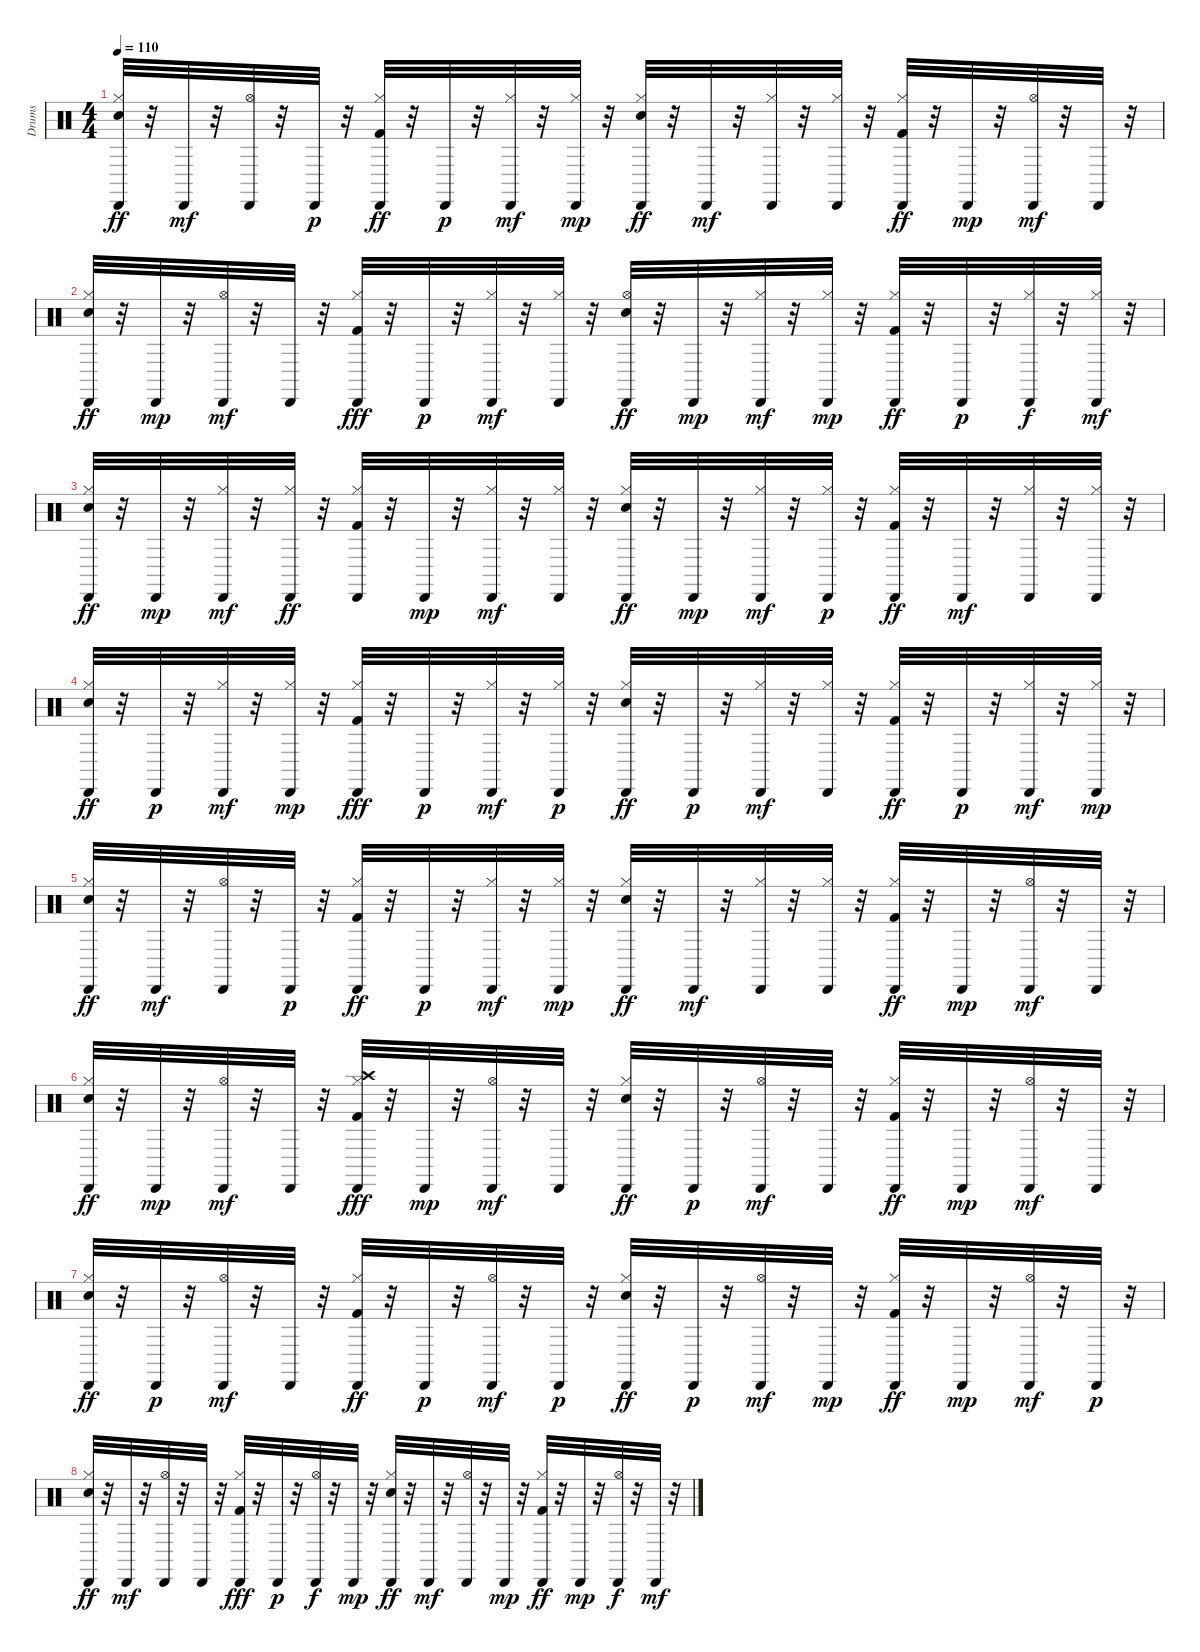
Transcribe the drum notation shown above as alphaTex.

\track ("Drums" "Drums") {instrument percussion}
\staff {score}
\articulation defaults
\ts (4 4)
\tempo 110
\clef neutral
\ks c
("Cabasa (hit)" "Hi-Hat (closed)" "Snare (hit) 2").32{dy ff} r.32 "Cabasa (hit)".32{dy mf} r.32 ("Hi-Hat (open)" "Cabasa (hit)").32 r.32 "Cabasa (hit)".32{dy p} r.32 ("Cabasa (hit)" "Hi-Hat (closed)" "Kick (hit) 2").32{dy ff} r.32 "Cabasa (hit)".32{dy p} r.32 ("Cabasa (hit)" "Hi-Hat (closed)").32{dy mf} r.32 ("Cabasa (hit)" "Hi-Hat (closed)").32{dy mp} r.32 ("Cabasa (hit)" "Hi-Hat (closed)" "Snare (hit) 2").32{dy ff} r.32 "Cabasa (hit)".32{dy mf} r.32 ("Cabasa (hit)" "Hi-Hat (closed)").32 r.32 ("Cabasa (hit)" "Hi-Hat (closed)").32 r.32 ("Cabasa (hit)" "Hi-Hat (closed)" "Kick (hit) 2").32{dy ff} r.32 "Cabasa (hit)".32{dy mp} r.32 ("Hi-Hat (open)" "Cabasa (hit)").32{dy mf} r.32 "Cabasa (hit)".32 r.32 |
("Cabasa (hit)" "Hi-Hat (closed)" "Snare (hit) 2").32{dy ff} r.32 "Cabasa (hit)".32{dy mp} r.32 ("Hi-Hat (open)" "Cabasa (hit)").32{dy mf} r.32 "Cabasa (hit)".32 r.32 ("Cabasa (hit)" "Hi-Hat (closed)" "Kick (hit) 2").32{dy fff} r.32 "Cabasa (hit)".32{dy p} r.32 ("Cabasa (hit)" "Hi-Hat (closed)").32{dy mf} r.32 ("Cabasa (hit)" "Hi-Hat (closed)").32 r.32 ("Hi-Hat (open)" "Cabasa (hit)" "Snare (hit) 2").32{dy ff} r.32 "Cabasa (hit)".32{dy mp} r.32 ("Cabasa (hit)" "Hi-Hat (closed)").32{dy mf} r.32 ("Cabasa (hit)" "Hi-Hat (closed)").32{dy mp} r.32 ("Cabasa (hit)" "Hi-Hat (closed)" "Kick (hit) 2").32{dy ff} r.32 "Cabasa (hit)".32{dy p} r.32 ("Cabasa (hit)" "Hi-Hat (closed)").32{dy f} r.32 ("Cabasa (hit)" "Hi-Hat (closed)").32{dy mf} r.32 |
("Cabasa (hit)" "Hi-Hat (closed)" "Snare (hit) 2").32{dy ff} r.32 "Cabasa (hit)".32{dy mp} r.32 ("Cabasa (hit)" "Hi-Hat (closed)").32{dy mf} r.32 ("Cabasa (hit)" "Hi-Hat (closed)").32{dy ff} r.32 ("Cabasa (hit)" "Hi-Hat (closed)" "Kick (hit) 2").32 r.32 "Cabasa (hit)".32{dy mp} r.32 ("Cabasa (hit)" "Hi-Hat (closed)").32{dy mf} r.32 ("Cabasa (hit)" "Hi-Hat (closed)").32 r.32 ("Cabasa (hit)" "Hi-Hat (closed)" "Snare (hit) 2").32{dy ff} r.32 "Cabasa (hit)".32{dy mp} r.32 ("Cabasa (hit)" "Hi-Hat (closed)").32{dy mf} r.32 ("Cabasa (hit)" "Hi-Hat (closed)").32{dy p} r.32 ("Cabasa (hit)" "Hi-Hat (closed)" "Kick (hit) 2").32{dy ff} r.32 "Cabasa (hit)".32{dy mf} r.32 ("Cabasa (hit)" "Hi-Hat (closed)").32 r.32 ("Cabasa (hit)" "Hi-Hat (closed)").32 r.32 |
("Cabasa (hit)" "Hi-Hat (closed)" "Snare (hit) 2").32{dy ff} r.32 "Cabasa (hit)".32{dy p} r.32 ("Cabasa (hit)" "Hi-Hat (closed)").32{dy mf} r.32 ("Cabasa (hit)" "Hi-Hat (closed)").32{dy mp} r.32 ("Cabasa (hit)" "Hi-Hat (closed)" "Kick (hit) 2").32{dy fff} r.32 "Cabasa (hit)".32{dy p} r.32 ("Cabasa (hit)" "Hi-Hat (closed)").32{dy mf} r.32 ("Cabasa (hit)" "Hi-Hat (closed)").32{dy p} r.32 ("Cabasa (hit)" "Hi-Hat (closed)" "Snare (hit) 2").32{dy ff} r.32 "Cabasa (hit)".32{dy p} r.32 ("Cabasa (hit)" "Hi-Hat (closed)").32{dy mf} r.32 ("Cabasa (hit)" "Hi-Hat (closed)").32 r.32 ("Cabasa (hit)" "Hi-Hat (closed)" "Kick (hit) 2").32{dy ff} r.32 "Cabasa (hit)".32{dy p} r.32 ("Cabasa (hit)" "Hi-Hat (closed)").32{dy mf} r.32 ("Cabasa (hit)" "Hi-Hat (closed)").32{dy mp} r.32 |
("Cabasa (hit)" "Hi-Hat (closed)" "Snare (hit) 2").32{dy ff} r.32 "Cabasa (hit)".32{dy mf} r.32 ("Hi-Hat (open)" "Cabasa (hit)").32 r.32 "Cabasa (hit)".32{dy p} r.32 ("Cabasa (hit)" "Hi-Hat (closed)" "Kick (hit) 2").32{dy ff} r.32 "Cabasa (hit)".32{dy p} r.32 ("Cabasa (hit)" "Hi-Hat (closed)").32{dy mf} r.32 ("Cabasa (hit)" "Hi-Hat (closed)").32{dy mp} r.32 ("Cabasa (hit)" "Hi-Hat (closed)" "Snare (hit) 2").32{dy ff} r.32 "Cabasa (hit)".32{dy mf} r.32 ("Cabasa (hit)" "Hi-Hat (closed)").32 r.32 ("Cabasa (hit)" "Hi-Hat (closed)").32 r.32 ("Cabasa (hit)" "Hi-Hat (closed)" "Kick (hit) 2").32{dy ff} r.32 "Cabasa (hit)".32{dy mp} r.32 ("Hi-Hat (open)" "Cabasa (hit)").32{dy mf} r.32 "Cabasa (hit)".32 r.32 |
("Cabasa (hit)" "Hi-Hat (closed)" "Snare (hit) 2").32{dy ff} r.32 "Cabasa (hit)".32{dy mp} r.32 ("Hi-Hat (open)" "Cabasa (hit)").32{dy mf} r.32 "Cabasa (hit)".32 r.32 ("Cabasa (hit)" "Crash high (hit)" "Hi-Hat (closed)" "Kick (hit) 2").32{dy fff} r.32 "Cabasa (hit)".32{dy mp} r.32 ("Hi-Hat (open)" "Cabasa (hit)").32{dy mf} r.32 "Cabasa (hit)".32 r.32 ("Cabasa (hit)" "Hi-Hat (closed)" "Snare (hit) 2").32{dy ff} r.32 "Cabasa (hit)".32{dy p} r.32 ("Hi-Hat (open)" "Cabasa (hit)").32{dy mf} r.32 "Cabasa (hit)".32 r.32 ("Cabasa (hit)" "Hi-Hat (closed)" "Kick (hit) 2").32{dy ff} r.32 "Cabasa (hit)".32{dy mp} r.32 ("Hi-Hat (open)" "Cabasa (hit)").32{dy mf} r.32 "Cabasa (hit)".32 r.32 |
("Cabasa (hit)" "Hi-Hat (closed)" "Snare (hit) 2").32{dy ff} r.32 "Cabasa (hit)".32{dy p} r.32 ("Hi-Hat (open)" "Cabasa (hit)").32{dy mf} r.32 "Cabasa (hit)".32 r.32 ("Cabasa (hit)" "Hi-Hat (closed)" "Kick (hit) 2").32{dy ff} r.32 "Cabasa (hit)".32{dy p} r.32 ("Hi-Hat (open)" "Cabasa (hit)").32{dy mf} r.32 "Cabasa (hit)".32{dy p} r.32 ("Cabasa (hit)" "Hi-Hat (closed)" "Snare (hit) 2").32{dy ff} r.32 "Cabasa (hit)".32{dy p} r.32 ("Hi-Hat (open)" "Cabasa (hit)").32{dy mf} r.32 "Cabasa (hit)".32{dy mp} r.32 ("Cabasa (hit)" "Hi-Hat (closed)" "Kick (hit) 2").32{dy ff} r.32 "Cabasa (hit)".32{dy mp} r.32 ("Hi-Hat (open)" "Cabasa (hit)").32{dy mf} r.32 "Cabasa (hit)".32{dy p} r.32 |
("Cabasa (hit)" "Hi-Hat (closed)" "Snare (hit) 2").32{dy ff} r.32 "Cabasa (hit)".32{dy mf} r.32 ("Hi-Hat (open)" "Cabasa (hit)").32 r.32 "Cabasa (hit)".32 r.32 ("Cabasa (hit)" "Hi-Hat (closed)" "Kick (hit) 2").32{dy fff} r.32 "Cabasa (hit)".32{dy p} r.32 ("Hi-Hat (open)" "Cabasa (hit)").32{dy f} r.32 "Cabasa (hit)".32{dy mp} r.32 ("Cabasa (hit)" "Hi-Hat (closed)" "Snare (hit) 2").32{dy ff} r.32 "Cabasa (hit)".32{dy mf} r.32 ("Hi-Hat (open)" "Cabasa (hit)").32 r.32 "Cabasa (hit)".32{dy mp} r.32 ("Cabasa (hit)" "Hi-Hat (closed)" "Kick (hit) 2").32{dy ff} r.32 "Cabasa (hit)".32{dy mp} r.32 ("Hi-Hat (open)" "Cabasa (hit)").32{dy f} r.32 "Cabasa (hit)".32{dy mf} r.32
